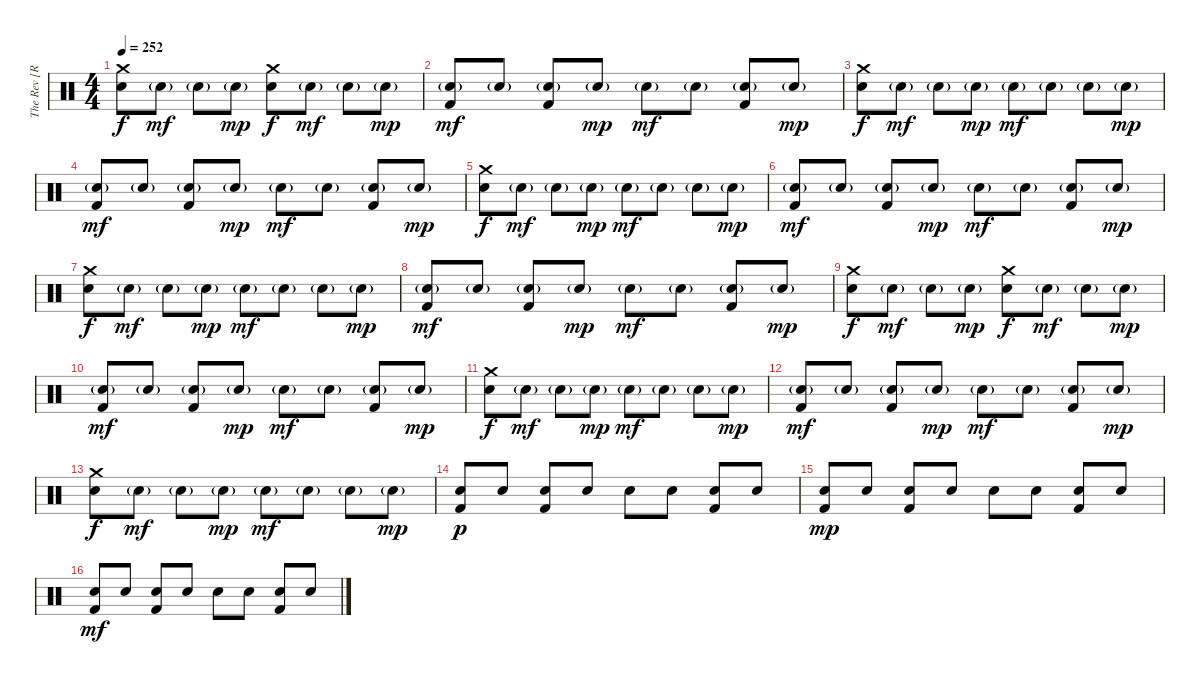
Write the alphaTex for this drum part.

\track ("The Rev [R.I.P]" "The Rev [R") {instrument percussion}
\staff {score}
\articulation defaults
\ts (4 4)
\tempo 252
\clef neutral
\ks c
("Crash medium (hit)" "Electric Snare (hit)").8{dy f} "Electric Snare (hit)"{g}.8{dy mf} "Electric Snare (hit)"{g}.8 "Electric Snare (hit)"{g}.8{dy mp} ("Crash medium (hit)" "Electric Snare (hit)").8{dy f} "Electric Snare (hit)"{g}.8{dy mf} "Electric Snare (hit)"{g}.8 "Electric Snare (hit)"{g}.8{dy mp} |
("Electric Snare (hit)"{g} "Kick (hit) 2").8{dy mf} "Electric Snare (hit)"{g}.8 ("Electric Snare (hit)"{g} "Kick (hit) 2").8 "Electric Snare (hit)"{g}.8{dy mp} "Electric Snare (hit)"{g}.8{dy mf} "Electric Snare (hit)"{g}.8 ("Electric Snare (hit)"{g} "Kick (hit) 2").8 "Electric Snare (hit)"{g}.8{dy mp} |
("Crash medium (hit)" "Electric Snare (hit)").8{dy f} "Electric Snare (hit)"{g}.8{dy mf} "Electric Snare (hit)"{g}.8 "Electric Snare (hit)"{g}.8{dy mp} "Electric Snare (hit)"{g}.8{dy mf} "Electric Snare (hit)"{g}.8 "Electric Snare (hit)"{g}.8 "Electric Snare (hit)"{g}.8{dy mp} |
("Electric Snare (hit)"{g} "Kick (hit) 2").8{dy mf} "Electric Snare (hit)"{g}.8 ("Electric Snare (hit)"{g} "Kick (hit) 2").8 "Electric Snare (hit)"{g}.8{dy mp} "Electric Snare (hit)"{g}.8{dy mf} "Electric Snare (hit)"{g}.8 ("Electric Snare (hit)"{g} "Kick (hit) 2").8 "Electric Snare (hit)"{g}.8{dy mp} |
("Crash medium (hit)" "Electric Snare (hit)").8{dy f} "Electric Snare (hit)"{g}.8{dy mf} "Electric Snare (hit)"{g}.8 "Electric Snare (hit)"{g}.8{dy mp} "Electric Snare (hit)"{g}.8{dy mf} "Electric Snare (hit)"{g}.8 "Electric Snare (hit)"{g}.8 "Electric Snare (hit)"{g}.8{dy mp} |
("Electric Snare (hit)"{g} "Kick (hit) 2").8{dy mf} "Electric Snare (hit)"{g}.8 ("Electric Snare (hit)"{g} "Kick (hit) 2").8 "Electric Snare (hit)"{g}.8{dy mp} "Electric Snare (hit)"{g}.8{dy mf} "Electric Snare (hit)"{g}.8 ("Electric Snare (hit)"{g} "Kick (hit) 2").8 "Electric Snare (hit)"{g}.8{dy mp} |
("Crash medium (hit)" "Electric Snare (hit)").8{dy f} "Electric Snare (hit)"{g}.8{dy mf} "Electric Snare (hit)"{g}.8 "Electric Snare (hit)"{g}.8{dy mp} "Electric Snare (hit)"{g}.8{dy mf} "Electric Snare (hit)"{g}.8 "Electric Snare (hit)"{g}.8 "Electric Snare (hit)"{g}.8{dy mp} |
("Electric Snare (hit)"{g} "Kick (hit) 2").8{dy mf} "Electric Snare (hit)"{g}.8 ("Electric Snare (hit)"{g} "Kick (hit) 2").8 "Electric Snare (hit)"{g}.8{dy mp} "Electric Snare (hit)"{g}.8{dy mf} "Electric Snare (hit)"{g}.8 ("Electric Snare (hit)"{g} "Kick (hit) 2").8 "Electric Snare (hit)"{g}.8{dy mp} |
("Crash medium (hit)" "Electric Snare (hit)").8{dy f} "Electric Snare (hit)"{g}.8{dy mf} "Electric Snare (hit)"{g}.8 "Electric Snare (hit)"{g}.8{dy mp} ("Crash medium (hit)" "Electric Snare (hit)").8{dy f} "Electric Snare (hit)"{g}.8{dy mf} "Electric Snare (hit)"{g}.8 "Electric Snare (hit)"{g}.8{dy mp} |
("Electric Snare (hit)"{g} "Kick (hit) 2").8{dy mf} "Electric Snare (hit)"{g}.8 ("Electric Snare (hit)"{g} "Kick (hit) 2").8 "Electric Snare (hit)"{g}.8{dy mp} "Electric Snare (hit)"{g}.8{dy mf} "Electric Snare (hit)"{g}.8 ("Electric Snare (hit)"{g} "Kick (hit) 2").8 "Electric Snare (hit)"{g}.8{dy mp} |
("Crash medium (hit)" "Electric Snare (hit)").8{dy f} "Electric Snare (hit)"{g}.8{dy mf} "Electric Snare (hit)"{g}.8 "Electric Snare (hit)"{g}.8{dy mp} "Electric Snare (hit)"{g}.8{dy mf} "Electric Snare (hit)"{g}.8 "Electric Snare (hit)"{g}.8 "Electric Snare (hit)"{g}.8{dy mp} |
("Electric Snare (hit)"{g} "Kick (hit) 2").8{dy mf} "Electric Snare (hit)"{g}.8 ("Electric Snare (hit)"{g} "Kick (hit) 2").8 "Electric Snare (hit)"{g}.8{dy mp} "Electric Snare (hit)"{g}.8{dy mf} "Electric Snare (hit)"{g}.8 ("Electric Snare (hit)"{g} "Kick (hit) 2").8 "Electric Snare (hit)"{g}.8{dy mp} |
("Crash medium (hit)" "Electric Snare (hit)").8{dy f} "Electric Snare (hit)"{g}.8{dy mf} "Electric Snare (hit)"{g}.8 "Electric Snare (hit)"{g}.8{dy mp} "Electric Snare (hit)"{g}.8{dy mf} "Electric Snare (hit)"{g}.8 "Electric Snare (hit)"{g}.8 "Electric Snare (hit)"{g}.8{dy mp} |
("Electric Snare (hit)" "Kick (hit) 2").8{dy p} "Electric Snare (hit)".8 ("Electric Snare (hit)" "Kick (hit) 2").8 "Electric Snare (hit)".8 "Electric Snare (hit)".8 "Electric Snare (hit)".8 ("Electric Snare (hit)" "Kick (hit) 2").8 "Electric Snare (hit)".8 |
("Electric Snare (hit)" "Kick (hit) 2").8{dy mp} "Electric Snare (hit)".8 ("Electric Snare (hit)" "Kick (hit) 2").8 "Electric Snare (hit)".8 "Electric Snare (hit)".8 "Electric Snare (hit)".8 ("Electric Snare (hit)" "Kick (hit) 2").8 "Electric Snare (hit)".8 |
("Electric Snare (hit)" "Kick (hit) 2").8{dy mf} "Electric Snare (hit)".8 ("Electric Snare (hit)" "Kick (hit) 2").8 "Electric Snare (hit)".8 "Electric Snare (hit)".8 "Electric Snare (hit)".8 ("Electric Snare (hit)" "Kick (hit) 2").8 "Electric Snare (hit)".8
